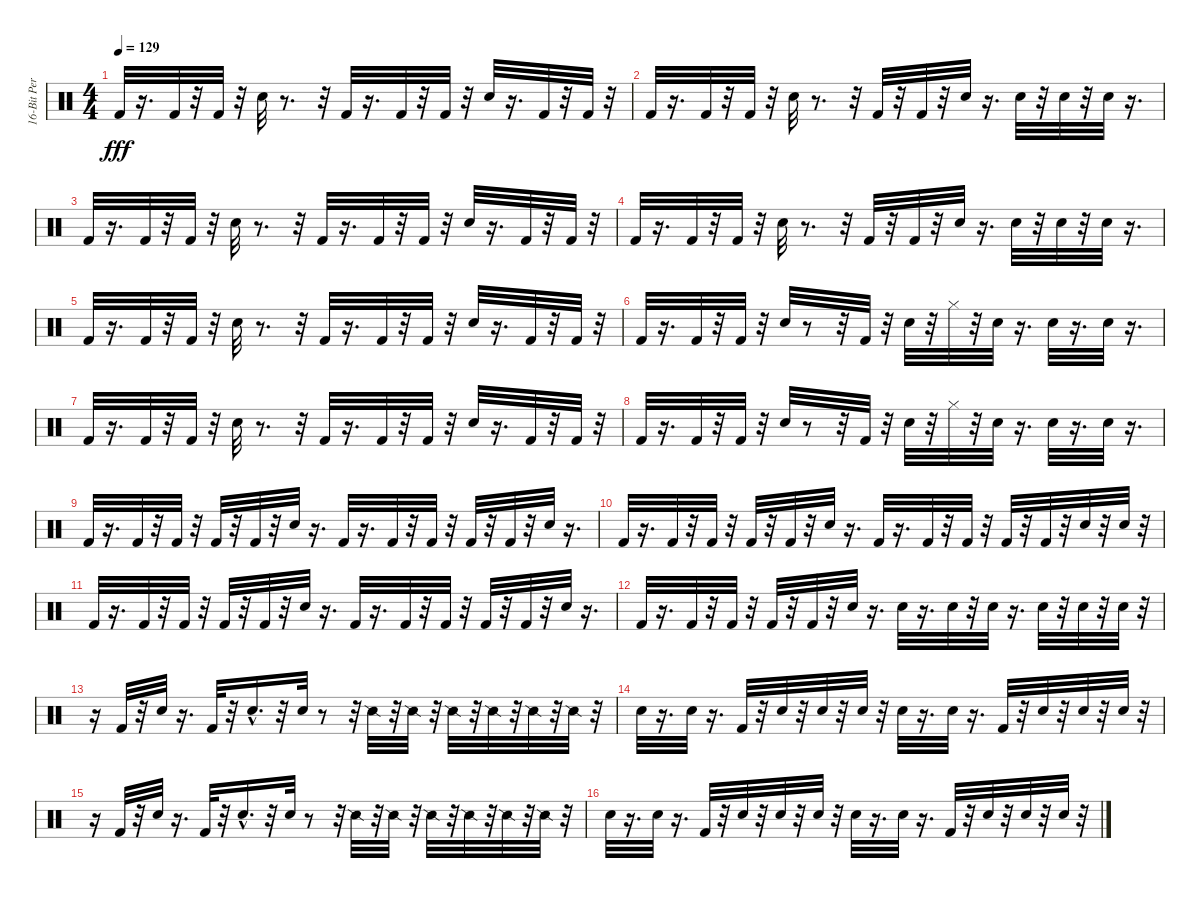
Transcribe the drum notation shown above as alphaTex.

\track ("16-Bit Percussion" "16-Bit Per") {instrument percussion}
\staff {score}
\articulation defaults
\ts (4 4)
\tempo 129
\clef neutral
\ks c "Kick (hit) 2".32{dy fff}
r.16{d} "Kick (hit) 2".32 r.32 "Kick (hit) 2".32 r.32 "Snare (hit) 2".32 r.8{d} r.32 "Kick (hit) 2".32 r.16{d} "Kick (hit) 2".32 r.32 "Kick (hit) 2".32 r.32 "Snare (hit) 2".32 r.16{d} "Kick (hit) 2".32 r.32 "Kick (hit) 2".32 r.32 |
"Kick (hit) 2".32 r.16{d} "Kick (hit) 2".32 r.32 "Kick (hit) 2".32 r.32 "Snare (hit) 2".32 r.8{d} r.32 "Kick (hit) 2".32 r.32 "Kick (hit) 2".32 r.32 "Snare (hit) 2".32 r.16{d} "Snare (hit) 2".32 r.32 "Snare (hit) 2".32 r.32 "Snare (hit) 2".32 r.16{d} |
"Kick (hit) 2".32 r.16{d} "Kick (hit) 2".32 r.32 "Kick (hit) 2".32 r.32 "Snare (hit) 2".32 r.8{d} r.32 "Kick (hit) 2".32 r.16{d} "Kick (hit) 2".32 r.32 "Kick (hit) 2".32 r.32 "Snare (hit) 2".32 r.16{d} "Kick (hit) 2".32 r.32 "Kick (hit) 2".32 r.32 |
"Kick (hit) 2".32 r.16{d} "Kick (hit) 2".32 r.32 "Kick (hit) 2".32 r.32 "Snare (hit) 2".32 r.8{d} r.32 "Kick (hit) 2".32 r.32 "Kick (hit) 2".32 r.32 "Snare (hit) 2".32 r.16{d} "Snare (hit) 2".32 r.32 "Snare (hit) 2".32 r.32 "Snare (hit) 2".32 r.16{d} |
"Kick (hit) 2".32 r.16{d} "Kick (hit) 2".32 r.32 "Kick (hit) 2".32 r.32 "Snare (hit) 2".32 r.8{d} r.32 "Kick (hit) 2".32 r.16{d} "Kick (hit) 2".32 r.32 "Kick (hit) 2".32 r.32 "Snare (hit) 2".32 r.16{d} "Kick (hit) 2".32 r.32 "Kick (hit) 2".32 r.32 |
"Kick (hit) 2".32 r.16{d} "Kick (hit) 2".32 r.32 "Kick (hit) 2".32 r.32 "Snare (hit) 2".32 r.8 r.32 "Kick (hit) 2".32 r.32 "Snare (hit) 2".32 r.32 "Hi-Hat (closed)".32 r.32 "Snare (hit) 2".32 r.16{d} "Snare (hit) 2".32 r.16{d} "Snare (hit) 2".32 r.16{d} |
"Kick (hit) 2".32 r.16{d} "Kick (hit) 2".32 r.32 "Kick (hit) 2".32 r.32 "Snare (hit) 2".32 r.8{d} r.32 "Kick (hit) 2".32 r.16{d} "Kick (hit) 2".32 r.32 "Kick (hit) 2".32 r.32 "Snare (hit) 2".32 r.16{d} "Kick (hit) 2".32 r.32 "Kick (hit) 2".32 r.32 |
"Kick (hit) 2".32 r.16{d} "Kick (hit) 2".32 r.32 "Kick (hit) 2".32 r.32 "Snare (hit) 2".32 r.8 r.32 "Kick (hit) 2".32 r.32 "Snare (hit) 2".32 r.32 "Hi-Hat (closed)".32 r.32 "Snare (hit) 2".32 r.16{d} "Snare (hit) 2".32 r.16{d} "Snare (hit) 2".32 r.16{d} |
"Kick (hit) 2".32 r.16{d} "Kick (hit) 2".32 r.32 "Kick (hit) 2".32 r.32 "Kick (hit) 2".32 r.32 "Kick (hit) 2".32 r.32 "Snare (hit) 2".32 r.16{d} "Kick (hit) 2".32 r.16{d} "Kick (hit) 2".32 r.32 "Kick (hit) 2".32 r.32 "Kick (hit) 2".32 r.32 "Kick (hit) 2".32 r.32 "Snare (hit) 2".32 r.16{d} |
"Kick (hit) 2".32 r.16{d} "Kick (hit) 2".32 r.32 "Kick (hit) 2".32 r.32 "Kick (hit) 2".32 r.32 "Kick (hit) 2".32 r.32 "Snare (hit) 2".32 r.16{d} "Kick (hit) 2".32 r.16{d} "Kick (hit) 2".32 r.32 "Kick (hit) 2".32 r.32 "Kick (hit) 2".32 r.32 "Kick (hit) 2".32 r.32 "Snare (hit) 2".32 r.32 "Snare (hit) 2".32 r.32 |
"Kick (hit) 2".32 r.16{d} "Kick (hit) 2".32 r.32 "Kick (hit) 2".32 r.32 "Kick (hit) 2".32 r.32 "Kick (hit) 2".32 r.32 "Snare (hit) 2".32 r.16{d} "Kick (hit) 2".32 r.16{d} "Kick (hit) 2".32 r.32 "Kick (hit) 2".32 r.32 "Kick (hit) 2".32 r.32 "Kick (hit) 2".32 r.32 "Snare (hit) 2".32 r.16{d} |
"Kick (hit) 2".32 r.16{d} "Kick (hit) 2".32 r.32 "Kick (hit) 2".32 r.32 "Kick (hit) 2".32 r.32 "Kick (hit) 2".32 r.32 "Snare (hit) 2".32 r.16{d} "Snare (hit) 2".32 r.16{d} "Snare (hit) 2".32 r.32 "Snare (hit) 2".32 r.16{d} "Snare (hit) 2".32 r.32 "Snare (hit) 2".32 r.32 "Snare (hit) 2".32 r.32 |
r.16 "Kick (hit) 2".32 r.32 "Snare (hit) 2".32 r.16{d} "Kick (hit) 2".32 r.32 "Snare (hit) 2"{hac}.16{d} r.32 "Snare (hit) 2".32 r.8 r.32 "Snare (side stick) 2".32 r.32 "Snare (side stick) 2".32 r.32 "Snare (side stick) 2".32 r.32 "Snare (side stick) 2".32 r.32 "Snare (side stick) 2".32 r.32 "Snare (side stick) 2".32 r.32 |
"Snare (hit) 2".32 r.16{d} "Snare (hit) 2".32 r.16{d} "Kick (hit) 2".32 r.32 "Snare (hit) 2".32 r.32 "Snare (hit) 2".32 r.32 "Snare (hit) 2".32 r.32 "Snare (hit) 2".32 r.16{d} "Snare (hit) 2".32 r.16{d} "Kick (hit) 2".32 r.32 "Snare (hit) 2".32 r.32 "Snare (hit) 2".32 r.32 "Snare (hit) 2".32 r.32 |
r.16 "Kick (hit) 2".32 r.32 "Snare (hit) 2".32 r.16{d} "Kick (hit) 2".32 r.32 "Snare (hit) 2"{hac}.16{d} r.32 "Snare (hit) 2".32 r.8 r.32 "Snare (side stick) 2".32 r.32 "Snare (side stick) 2".32 r.32 "Snare (side stick) 2".32 r.32 "Snare (side stick) 2".32 r.32 "Snare (side stick) 2".32 r.32 "Snare (side stick) 2".32 r.32 |
"Snare (hit) 2".32 r.16{d} "Snare (hit) 2".32 r.16{d} "Kick (hit) 2".32 r.32 "Snare (hit) 2".32 r.32 "Snare (hit) 2".32 r.32 "Snare (hit) 2".32 r.32 "Snare (hit) 2".32 r.16{d} "Snare (hit) 2".32 r.16{d} "Kick (hit) 2".32 r.32 "Snare (hit) 2".32 r.32 "Snare (hit) 2".32 r.32 "Snare (hit) 2".32 r.32
